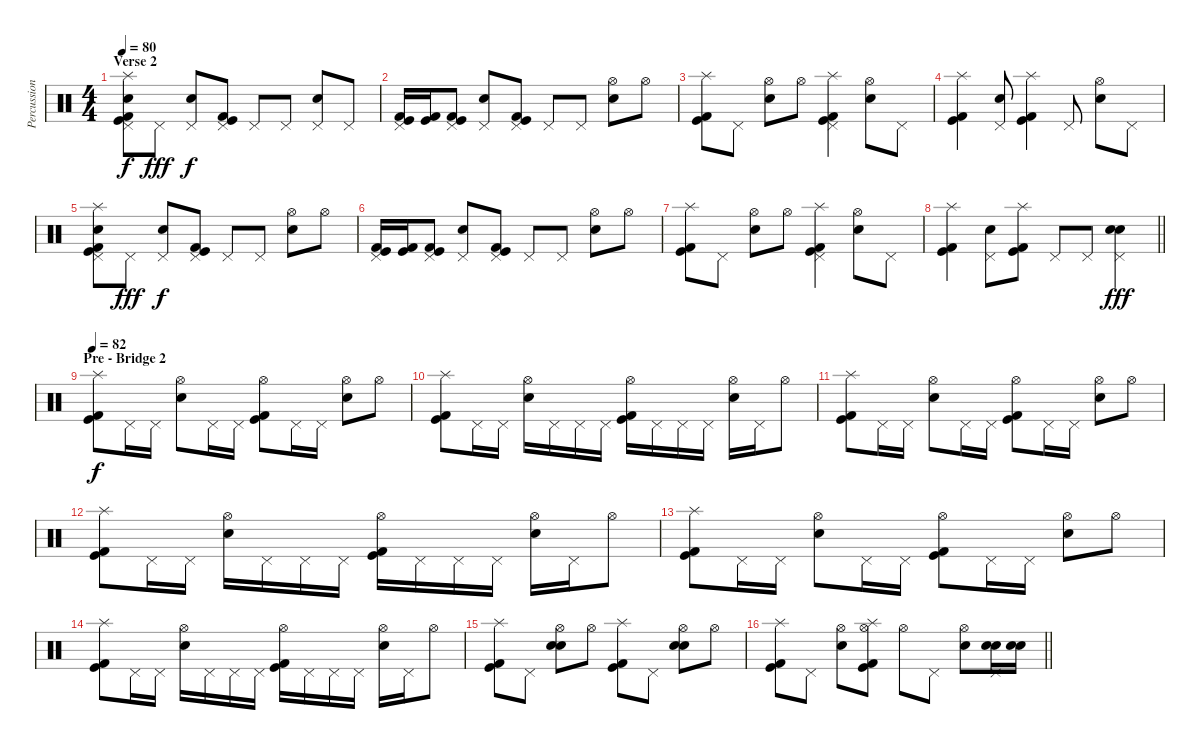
\track ("Percussion" "Percussion") {instrument percussion}
\staff {score}
\articulation defaults
\ts (4 4)
\section ("" "Verse 2")
\tempo 80
\clef neutral
\ks c
("Splash (hit)" "Snare (hit) 2" "Pedal Hi-Hat (hit)" "Kick (hit)" "Kick (hit) 2").8{dy f} "Pedal Hi-Hat (hit)".8{dy fff} ("Snare (hit) 2" "Pedal Hi-Hat (hit)").8{dy f} ("Pedal Hi-Hat (hit)" "Kick (hit)" "Kick (hit) 2").8 "Pedal Hi-Hat (hit)".8 "Pedal Hi-Hat (hit)".8 ("Snare (hit) 2" "Pedal Hi-Hat (hit)").8 "Pedal Hi-Hat (hit)".8 |
("Pedal Hi-Hat (hit)" "Kick (hit)" "Kick (hit) 2").16 ("Kick (hit)" "Kick (hit) 2").16 ("Pedal Hi-Hat (hit)" "Kick (hit)" "Kick (hit) 2").8 ("Snare (hit) 2" "Pedal Hi-Hat (hit)").8 ("Pedal Hi-Hat (hit)" "Kick (hit)" "Kick (hit) 2").8 "Pedal Hi-Hat (hit)".8 "Pedal Hi-Hat (hit)".8 ("Snare (hit) 2" "Hi-Hat (open)").8 "Hi-Hat (open)".8 |
("Splash (hit)" "Kick (hit)" "Kick (hit) 2").8 "Pedal Hi-Hat (hit)".8 ("Snare (hit) 2" "Hi-Hat (open)").8 "Hi-Hat (open)".8 ("Splash (hit)" "Pedal Hi-Hat (hit)" "Kick (hit)" "Kick (hit) 2").4 ("Snare (hit) 2" "Hi-Hat (open)").8 "Pedal Hi-Hat (hit)".8 |
("Splash (hit)" "Kick (hit)" "Kick (hit) 2").4 ("Snare (hit) 2" "Pedal Hi-Hat (hit)").8 ("Splash (hit)" "Kick (hit)" "Kick (hit) 2").4 "Pedal Hi-Hat (hit)".8 ("Snare (hit) 2" "Hi-Hat (open)").8 "Pedal Hi-Hat (hit)".8 |
("Splash (hit)" "Snare (hit) 2" "Pedal Hi-Hat (hit)" "Kick (hit)" "Kick (hit) 2").8 "Pedal Hi-Hat (hit)".8{dy fff} ("Snare (hit) 2" "Pedal Hi-Hat (hit)").8{dy f} ("Pedal Hi-Hat (hit)" "Kick (hit)" "Kick (hit) 2").8 "Pedal Hi-Hat (hit)".8 "Pedal Hi-Hat (hit)".8 ("Snare (hit) 2" "Hi-Hat (open)").8 "Hi-Hat (open)".8 |
("Pedal Hi-Hat (hit)" "Kick (hit)" "Kick (hit) 2").16 ("Kick (hit)" "Kick (hit) 2").16 ("Pedal Hi-Hat (hit)" "Kick (hit)" "Kick (hit) 2").8 ("Snare (hit) 2" "Pedal Hi-Hat (hit)").8 ("Pedal Hi-Hat (hit)" "Kick (hit)" "Kick (hit) 2").8 "Pedal Hi-Hat (hit)".8 "Pedal Hi-Hat (hit)".8 ("Snare (hit) 2" "Hi-Hat (open)").8 "Hi-Hat (open)".8 |
("Splash (hit)" "Kick (hit)" "Kick (hit) 2").8 "Pedal Hi-Hat (hit)".8 ("Snare (hit) 2" "Hi-Hat (open)").8 "Hi-Hat (open)".8 ("Splash (hit)" "Pedal Hi-Hat (hit)" "Kick (hit)" "Kick (hit) 2").4 ("Snare (hit) 2" "Hi-Hat (open)").8 "Pedal Hi-Hat (hit)".8 |
\barLineRight lightlight
("Splash (hit)" "Kick (hit)" "Kick (hit) 2").4 ("Snare (hit) 2" "Pedal Hi-Hat (hit)").8 ("Splash (hit)" "Kick (hit)" "Kick (hit) 2").8 "Pedal Hi-Hat (hit)".8 "Pedal Hi-Hat (hit)".8 ("Electric Snare (hit)" "Snare (hit) 2" "Pedal Hi-Hat (hit)").4{dy fff} |
\section ("" "Pre - Bridge 2")
\tempo 82
("Splash (hit)" "Kick (hit)" "Kick (hit) 2").8{dy f} "Pedal Hi-Hat (hit)".16 "Pedal Hi-Hat (hit)".16 ("Snare (hit) 2" "Hi-Hat (open)").8 "Pedal Hi-Hat (hit)".16 "Pedal Hi-Hat (hit)".16 ("Hi-Hat (open)" "Kick (hit)" "Kick (hit) 2").8 "Pedal Hi-Hat (hit)".16 "Pedal Hi-Hat (hit)".16 ("Snare (hit) 2" "Hi-Hat (open)").8 "Hi-Hat (open)".8 |
("Splash (hit)" "Kick (hit)" "Kick (hit) 2").8 "Pedal Hi-Hat (hit)".16 "Pedal Hi-Hat (hit)".16 ("Snare (hit) 2" "Hi-Hat (open)").16 "Pedal Hi-Hat (hit)".16 "Pedal Hi-Hat (hit)".16 "Pedal Hi-Hat (hit)".16 ("Hi-Hat (open)" "Kick (hit)" "Kick (hit) 2").16 "Pedal Hi-Hat (hit)".16 "Pedal Hi-Hat (hit)".16 "Pedal Hi-Hat (hit)".16 ("Snare (hit) 2" "Hi-Hat (open)").16 "Pedal Hi-Hat (hit)".16 "Hi-Hat (open)".8 |
("Splash (hit)" "Kick (hit)" "Kick (hit) 2").8 "Pedal Hi-Hat (hit)".16 "Pedal Hi-Hat (hit)".16 ("Snare (hit) 2" "Hi-Hat (open)").8 "Pedal Hi-Hat (hit)".16 "Pedal Hi-Hat (hit)".16 ("Hi-Hat (open)" "Kick (hit)" "Kick (hit) 2").8 "Pedal Hi-Hat (hit)".16 "Pedal Hi-Hat (hit)".16 ("Snare (hit) 2" "Hi-Hat (open)").8 "Hi-Hat (open)".8 |
("Splash (hit)" "Kick (hit)" "Kick (hit) 2").8 "Pedal Hi-Hat (hit)".16 "Pedal Hi-Hat (hit)".16 ("Snare (hit) 2" "Hi-Hat (open)").16 "Pedal Hi-Hat (hit)".16 "Pedal Hi-Hat (hit)".16 "Pedal Hi-Hat (hit)".16 ("Hi-Hat (open)" "Kick (hit)" "Kick (hit) 2").16 "Pedal Hi-Hat (hit)".16 "Pedal Hi-Hat (hit)".16 "Pedal Hi-Hat (hit)".16 ("Snare (hit) 2" "Hi-Hat (open)").16 "Pedal Hi-Hat (hit)".16 "Hi-Hat (open)".8 |
("Splash (hit)" "Kick (hit)" "Kick (hit) 2").8 "Pedal Hi-Hat (hit)".16 "Pedal Hi-Hat (hit)".16 ("Snare (hit) 2" "Hi-Hat (open)").8 "Pedal Hi-Hat (hit)".16 "Pedal Hi-Hat (hit)".16 ("Hi-Hat (open)" "Kick (hit)" "Kick (hit) 2").8 "Pedal Hi-Hat (hit)".16 "Pedal Hi-Hat (hit)".16 ("Snare (hit) 2" "Hi-Hat (open)").8 "Hi-Hat (open)".8 |
("Splash (hit)" "Kick (hit)" "Kick (hit) 2").8 "Pedal Hi-Hat (hit)".16 "Pedal Hi-Hat (hit)".16 ("Snare (hit) 2" "Hi-Hat (open)").16 "Pedal Hi-Hat (hit)".16 "Pedal Hi-Hat (hit)".16 "Pedal Hi-Hat (hit)".16 ("Hi-Hat (open)" "Kick (hit)" "Kick (hit) 2").16 "Pedal Hi-Hat (hit)".16 "Pedal Hi-Hat (hit)".16 "Pedal Hi-Hat (hit)".16 ("Snare (hit) 2" "Hi-Hat (open)").16 "Pedal Hi-Hat (hit)".16 "Hi-Hat (open)".8 |
("Splash (hit)" "Kick (hit)" "Kick (hit) 2").8 "Pedal Hi-Hat (hit)".8 ("Snare (hit) 2" "Electric Snare (hit)" "Hi-Hat (open)").8 "Hi-Hat (open)".8 ("Splash (hit)" "Kick (hit)" "Kick (hit) 2").8 "Pedal Hi-Hat (hit)".8 ("Snare (hit) 2" "Electric Snare (hit)" "Hi-Hat (open)").8 "Hi-Hat (open)".8 |
\barLineRight lightlight
("Splash (hit)" "Kick (hit)" "Kick (hit) 2").8 "Pedal Hi-Hat (hit)".8 ("Electric Snare (hit)" "Hi-Hat (open)").8 ("Splash (hit)" "Hi-Hat (open)" "Kick (hit)" "Kick (hit) 2").8 "Hi-Hat (open)".8 "Pedal Hi-Hat (hit)".8 ("Snare (hit) 2" "Hi-Hat (open)").8 ("Snare (hit) 2" "Electric Snare (hit)" "Pedal Hi-Hat (hit)").16 ("Snare (hit) 2" "Electric Snare (hit)").16
